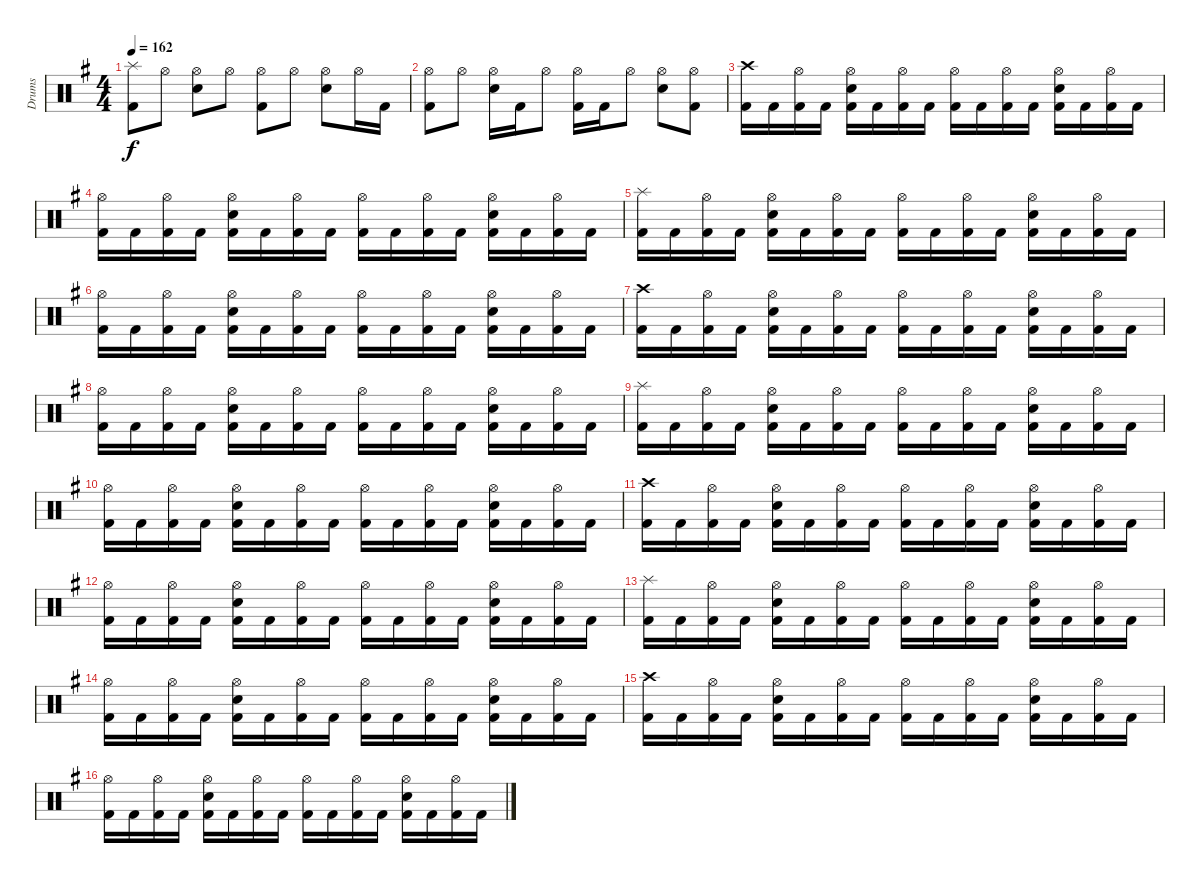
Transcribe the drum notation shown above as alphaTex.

\track ("Drums" "Drums") {instrument percussion}
\staff {score}
\articulation defaults
\ts (4 4)
\tempo 162
\clef neutral
\ks g
("Splash (hit)" "Kick (hit) 2").8{dy f} "Hi-Hat (open)".8 ("Hi-Hat (open)" "Electric Snare (hit)").8 "Hi-Hat (open)".8 ("Hi-Hat (open)" "Kick (hit) 2").8 "Hi-Hat (open)".8 ("Hi-Hat (open)" "Electric Snare (hit)").8 "Hi-Hat (open)".16 "Kick (hit) 2".16 |
("Hi-Hat (open)" "Kick (hit) 2").8 "Hi-Hat (open)".8 ("Hi-Hat (open)" "Electric Snare (hit)").16 "Kick (hit) 2".16 "Hi-Hat (open)".8 ("Hi-Hat (open)" "Kick (hit) 2").16 "Kick (hit) 2".16 "Hi-Hat (open)".8 ("Hi-Hat (open)" "Electric Snare (hit)").8 ("Hi-Hat (open)" "Kick (hit) 2").8 |
("Crash high (hit)" "Kick (hit) 2").16 "Kick (hit) 2".16 ("Hi-Hat (open)" "Kick (hit) 2").16 "Kick (hit) 2".16 ("Hi-Hat (open)" "Electric Snare (hit)" "Kick (hit) 2").16 "Kick (hit) 2".16 ("Hi-Hat (open)" "Kick (hit) 2").16 "Kick (hit) 2".16 ("Hi-Hat (open)" "Kick (hit) 2").16 "Kick (hit) 2".16 ("Hi-Hat (open)" "Kick (hit) 2").16 "Kick (hit) 2".16 ("Hi-Hat (open)" "Electric Snare (hit)" "Kick (hit) 2").16 "Kick (hit) 2".16 ("Hi-Hat (open)" "Kick (hit) 2").16 "Kick (hit) 2".16 |
("Hi-Hat (open)" "Kick (hit) 2").16 "Kick (hit) 2".16 ("Hi-Hat (open)" "Kick (hit) 2").16 "Kick (hit) 2".16 ("Hi-Hat (open)" "Electric Snare (hit)" "Kick (hit) 2").16 "Kick (hit) 2".16 ("Hi-Hat (open)" "Kick (hit) 2").16 "Kick (hit) 2".16 ("Hi-Hat (open)" "Kick (hit) 2").16 "Kick (hit) 2".16 ("Hi-Hat (open)" "Kick (hit) 2").16 "Kick (hit) 2".16 ("Hi-Hat (open)" "Electric Snare (hit)" "Kick (hit) 2").16 "Kick (hit) 2".16 ("Hi-Hat (open)" "Kick (hit) 2").16 "Kick (hit) 2".16 |
("Splash (hit)" "Kick (hit) 2").16 "Kick (hit) 2".16 ("Hi-Hat (open)" "Kick (hit) 2").16 "Kick (hit) 2".16 ("Hi-Hat (open)" "Electric Snare (hit)" "Kick (hit) 2").16 "Kick (hit) 2".16 ("Hi-Hat (open)" "Kick (hit) 2").16 "Kick (hit) 2".16 ("Hi-Hat (open)" "Kick (hit) 2").16 "Kick (hit) 2".16 ("Hi-Hat (open)" "Kick (hit) 2").16 "Kick (hit) 2".16 ("Hi-Hat (open)" "Electric Snare (hit)" "Kick (hit) 2").16 "Kick (hit) 2".16 ("Hi-Hat (open)" "Kick (hit) 2").16 "Kick (hit) 2".16 |
("Hi-Hat (open)" "Kick (hit) 2").16 "Kick (hit) 2".16 ("Hi-Hat (open)" "Kick (hit) 2").16 "Kick (hit) 2".16 ("Hi-Hat (open)" "Electric Snare (hit)" "Kick (hit) 2").16 "Kick (hit) 2".16 ("Hi-Hat (open)" "Kick (hit) 2").16 "Kick (hit) 2".16 ("Hi-Hat (open)" "Kick (hit) 2").16 "Kick (hit) 2".16 ("Hi-Hat (open)" "Kick (hit) 2").16 "Kick (hit) 2".16 ("Hi-Hat (open)" "Electric Snare (hit)" "Kick (hit) 2").16 "Kick (hit) 2".16 ("Hi-Hat (open)" "Kick (hit) 2").16 "Kick (hit) 2".16 |
("Crash high (hit)" "Kick (hit) 2").16 "Kick (hit) 2".16 ("Hi-Hat (open)" "Kick (hit) 2").16 "Kick (hit) 2".16 ("Hi-Hat (open)" "Electric Snare (hit)" "Kick (hit) 2").16 "Kick (hit) 2".16 ("Hi-Hat (open)" "Kick (hit) 2").16 "Kick (hit) 2".16 ("Hi-Hat (open)" "Kick (hit) 2").16 "Kick (hit) 2".16 ("Hi-Hat (open)" "Kick (hit) 2").16 "Kick (hit) 2".16 ("Hi-Hat (open)" "Electric Snare (hit)" "Kick (hit) 2").16 "Kick (hit) 2".16 ("Hi-Hat (open)" "Kick (hit) 2").16 "Kick (hit) 2".16 |
("Hi-Hat (open)" "Kick (hit) 2").16 "Kick (hit) 2".16 ("Hi-Hat (open)" "Kick (hit) 2").16 "Kick (hit) 2".16 ("Hi-Hat (open)" "Electric Snare (hit)" "Kick (hit) 2").16 "Kick (hit) 2".16 ("Hi-Hat (open)" "Kick (hit) 2").16 "Kick (hit) 2".16 ("Hi-Hat (open)" "Kick (hit) 2").16 "Kick (hit) 2".16 ("Hi-Hat (open)" "Kick (hit) 2").16 "Kick (hit) 2".16 ("Hi-Hat (open)" "Electric Snare (hit)" "Kick (hit) 2").16 "Kick (hit) 2".16 ("Hi-Hat (open)" "Kick (hit) 2").16 "Kick (hit) 2".16 |
("Splash (hit)" "Kick (hit) 2").16 "Kick (hit) 2".16 ("Hi-Hat (open)" "Kick (hit) 2").16 "Kick (hit) 2".16 ("Hi-Hat (open)" "Electric Snare (hit)" "Kick (hit) 2").16 "Kick (hit) 2".16 ("Hi-Hat (open)" "Kick (hit) 2").16 "Kick (hit) 2".16 ("Hi-Hat (open)" "Kick (hit) 2").16 "Kick (hit) 2".16 ("Hi-Hat (open)" "Kick (hit) 2").16 "Kick (hit) 2".16 ("Hi-Hat (open)" "Electric Snare (hit)" "Kick (hit) 2").16 "Kick (hit) 2".16 ("Hi-Hat (open)" "Kick (hit) 2").16 "Kick (hit) 2".16 |
("Hi-Hat (open)" "Kick (hit) 2").16 "Kick (hit) 2".16 ("Hi-Hat (open)" "Kick (hit) 2").16 "Kick (hit) 2".16 ("Hi-Hat (open)" "Electric Snare (hit)" "Kick (hit) 2").16 "Kick (hit) 2".16 ("Hi-Hat (open)" "Kick (hit) 2").16 "Kick (hit) 2".16 ("Hi-Hat (open)" "Kick (hit) 2").16 "Kick (hit) 2".16 ("Hi-Hat (open)" "Kick (hit) 2").16 "Kick (hit) 2".16 ("Hi-Hat (open)" "Electric Snare (hit)" "Kick (hit) 2").16 "Kick (hit) 2".16 ("Hi-Hat (open)" "Kick (hit) 2").16 "Kick (hit) 2".16 |
("Crash high (hit)" "Kick (hit) 2").16 "Kick (hit) 2".16 ("Hi-Hat (open)" "Kick (hit) 2").16 "Kick (hit) 2".16 ("Hi-Hat (open)" "Electric Snare (hit)" "Kick (hit) 2").16 "Kick (hit) 2".16 ("Hi-Hat (open)" "Kick (hit) 2").16 "Kick (hit) 2".16 ("Hi-Hat (open)" "Kick (hit) 2").16 "Kick (hit) 2".16 ("Hi-Hat (open)" "Kick (hit) 2").16 "Kick (hit) 2".16 ("Hi-Hat (open)" "Electric Snare (hit)" "Kick (hit) 2").16 "Kick (hit) 2".16 ("Hi-Hat (open)" "Kick (hit) 2").16 "Kick (hit) 2".16 |
("Hi-Hat (open)" "Kick (hit) 2").16 "Kick (hit) 2".16 ("Hi-Hat (open)" "Kick (hit) 2").16 "Kick (hit) 2".16 ("Hi-Hat (open)" "Electric Snare (hit)" "Kick (hit) 2").16 "Kick (hit) 2".16 ("Hi-Hat (open)" "Kick (hit) 2").16 "Kick (hit) 2".16 ("Hi-Hat (open)" "Kick (hit) 2").16 "Kick (hit) 2".16 ("Hi-Hat (open)" "Kick (hit) 2").16 "Kick (hit) 2".16 ("Hi-Hat (open)" "Electric Snare (hit)" "Kick (hit) 2").16 "Kick (hit) 2".16 ("Hi-Hat (open)" "Kick (hit) 2").16 "Kick (hit) 2".16 |
("Splash (hit)" "Kick (hit) 2").16 "Kick (hit) 2".16 ("Hi-Hat (open)" "Kick (hit) 2").16 "Kick (hit) 2".16 ("Hi-Hat (open)" "Electric Snare (hit)" "Kick (hit) 2").16 "Kick (hit) 2".16 ("Hi-Hat (open)" "Kick (hit) 2").16 "Kick (hit) 2".16 ("Hi-Hat (open)" "Kick (hit) 2").16 "Kick (hit) 2".16 ("Hi-Hat (open)" "Kick (hit) 2").16 "Kick (hit) 2".16 ("Hi-Hat (open)" "Electric Snare (hit)" "Kick (hit) 2").16 "Kick (hit) 2".16 ("Hi-Hat (open)" "Kick (hit) 2").16 "Kick (hit) 2".16 |
("Hi-Hat (open)" "Kick (hit) 2").16 "Kick (hit) 2".16 ("Hi-Hat (open)" "Kick (hit) 2").16 "Kick (hit) 2".16 ("Hi-Hat (open)" "Electric Snare (hit)" "Kick (hit) 2").16 "Kick (hit) 2".16 ("Hi-Hat (open)" "Kick (hit) 2").16 "Kick (hit) 2".16 ("Hi-Hat (open)" "Kick (hit) 2").16 "Kick (hit) 2".16 ("Hi-Hat (open)" "Kick (hit) 2").16 "Kick (hit) 2".16 ("Hi-Hat (open)" "Electric Snare (hit)" "Kick (hit) 2").16 "Kick (hit) 2".16 ("Hi-Hat (open)" "Kick (hit) 2").16 "Kick (hit) 2".16 |
("Crash high (hit)" "Kick (hit) 2").16 "Kick (hit) 2".16 ("Hi-Hat (open)" "Kick (hit) 2").16 "Kick (hit) 2".16 ("Hi-Hat (open)" "Electric Snare (hit)" "Kick (hit) 2").16 "Kick (hit) 2".16 ("Hi-Hat (open)" "Kick (hit) 2").16 "Kick (hit) 2".16 ("Hi-Hat (open)" "Kick (hit) 2").16 "Kick (hit) 2".16 ("Hi-Hat (open)" "Kick (hit) 2").16 "Kick (hit) 2".16 ("Hi-Hat (open)" "Electric Snare (hit)" "Kick (hit) 2").16 "Kick (hit) 2".16 ("Hi-Hat (open)" "Kick (hit) 2").16 "Kick (hit) 2".16 |
("Hi-Hat (open)" "Kick (hit) 2").16 "Kick (hit) 2".16 ("Hi-Hat (open)" "Kick (hit) 2").16 "Kick (hit) 2".16 ("Hi-Hat (open)" "Electric Snare (hit)" "Kick (hit) 2").16 "Kick (hit) 2".16 ("Hi-Hat (open)" "Kick (hit) 2").16 "Kick (hit) 2".16 ("Hi-Hat (open)" "Kick (hit) 2").16 "Kick (hit) 2".16 ("Hi-Hat (open)" "Kick (hit) 2").16 "Kick (hit) 2".16 ("Hi-Hat (open)" "Electric Snare (hit)" "Kick (hit) 2").16 "Kick (hit) 2".16 ("Hi-Hat (open)" "Kick (hit) 2").16 "Kick (hit) 2".16
